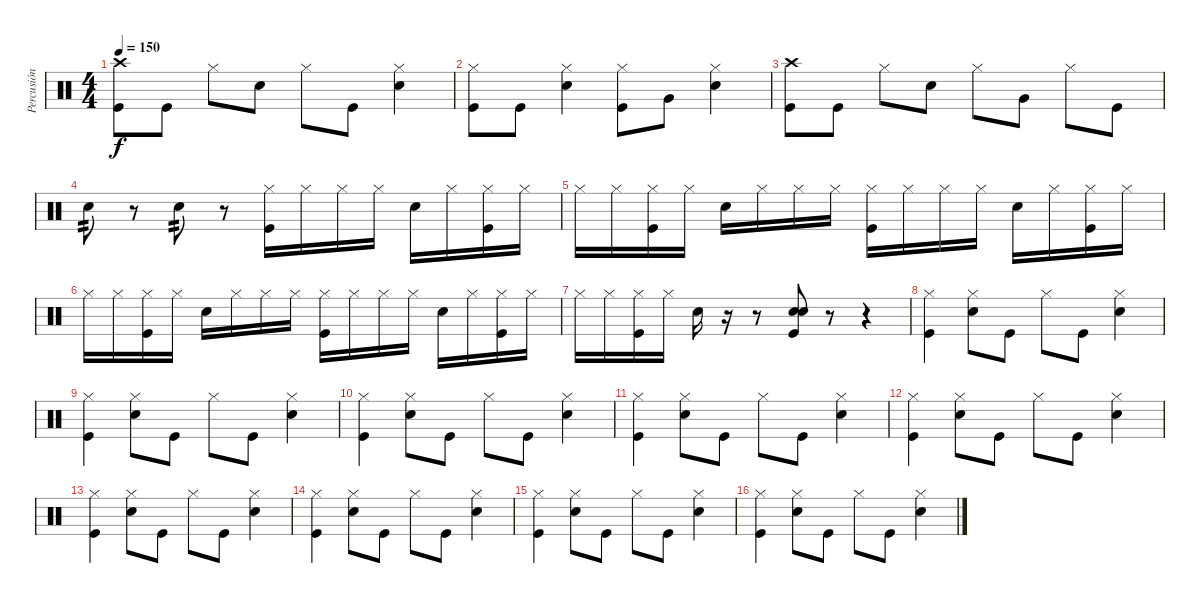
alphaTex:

\track ("Percusión" "Percusión") {instrument percussion}
\staff {score}
\articulation defaults
\ts (4 4)
\tempo 150
\clef neutral
\ks c
("Crash high (hit)" "Kick (hit)").8{dy f} "Kick (hit)".8 "Hi-Hat (closed)".8 "Snare (hit) 2".8 "Hi-Hat (closed)".8 "Kick (hit)".8 ("Hi-Hat (closed)" "Snare (hit) 2").4 |
("Hi-Hat (closed)" "Kick (hit)").8 "Kick (hit)".8 ("Hi-Hat (closed)" "Snare (hit) 2").4 ("Hi-Hat (closed)" "Kick (hit)").8 "Very Low Tom (hit)".8 ("Hi-Hat (closed)" "Snare (hit) 2").4 |
("Crash high (hit)" "Kick (hit)").8 "Kick (hit)".8 "Hi-Hat (closed)".8 "Snare (hit) 2".8 "Hi-Hat (closed)".8 "Very Low Tom (hit)".8 "Hi-Hat (closed)".8 "Kick (hit)".8 |
"Snare (hit) 2".8{tp 2} r.8 "Snare (hit) 2".8{tp 2} r.8 ("Hi-Hat (closed)" "Kick (hit)").16 "Hi-Hat (closed)".16 "Hi-Hat (closed)".16 "Hi-Hat (closed)".16 "Snare (hit) 2".16 "Hi-Hat (closed)".16 ("Hi-Hat (closed)" "Kick (hit)").16 "Hi-Hat (closed)".16 |
"Hi-Hat (closed)".16 "Hi-Hat (closed)".16 ("Hi-Hat (closed)" "Kick (hit)").16 "Hi-Hat (closed)".16 "Snare (hit) 2".16 "Hi-Hat (closed)".16 "Hi-Hat (closed)".16 "Hi-Hat (closed)".16 ("Hi-Hat (closed)" "Kick (hit)").16 "Hi-Hat (closed)".16 "Hi-Hat (closed)".16 "Hi-Hat (closed)".16 "Snare (hit) 2".16 "Hi-Hat (closed)".16 ("Hi-Hat (closed)" "Kick (hit)").16 "Hi-Hat (closed)".16 |
"Hi-Hat (closed)".16 "Hi-Hat (closed)".16 ("Hi-Hat (closed)" "Kick (hit)").16 "Hi-Hat (closed)".16 "Snare (hit) 2".16 "Hi-Hat (closed)".16 "Hi-Hat (closed)".16 "Hi-Hat (closed)".16 ("Hi-Hat (closed)" "Kick (hit)").16 "Hi-Hat (closed)".16 "Hi-Hat (closed)".16 "Hi-Hat (closed)".16 "Snare (hit) 2".16 "Hi-Hat (closed)".16 ("Hi-Hat (closed)" "Kick (hit)").16 "Hi-Hat (closed)".16 |
"Hi-Hat (closed)".16 "Hi-Hat (closed)".16 ("Hi-Hat (closed)" "Kick (hit)").16 "Hi-Hat (closed)".16 "Snare (hit) 2".16 r.16 r.8 ("Snare (hit) 2" "Snare (hit) 2" "Kick (hit)").8 r.8 r.4 |
("Hi-Hat (closed)" "Kick (hit)").4 ("Hi-Hat (closed)" "Snare (hit) 2").8 "Kick (hit)".8 "Hi-Hat (closed)".8 "Kick (hit)".8 ("Hi-Hat (closed)" "Snare (hit) 2").4 |
("Hi-Hat (closed)" "Kick (hit)").4 ("Hi-Hat (closed)" "Snare (hit) 2").8 "Kick (hit)".8 "Hi-Hat (closed)".8 "Kick (hit)".8 ("Hi-Hat (closed)" "Snare (hit) 2").4 |
("Hi-Hat (closed)" "Kick (hit)").4 ("Hi-Hat (closed)" "Snare (hit) 2").8 "Kick (hit)".8 "Hi-Hat (closed)".8 "Kick (hit)".8 ("Hi-Hat (closed)" "Snare (hit) 2").4 |
("Hi-Hat (closed)" "Kick (hit)").4 ("Hi-Hat (closed)" "Snare (hit) 2").8 "Kick (hit)".8 "Hi-Hat (closed)".8 "Kick (hit)".8 ("Hi-Hat (closed)" "Snare (hit) 2").4 |
("Hi-Hat (closed)" "Kick (hit)").4 ("Hi-Hat (closed)" "Snare (hit) 2").8 "Kick (hit)".8 "Hi-Hat (closed)".8 "Kick (hit)".8 ("Hi-Hat (closed)" "Snare (hit) 2").4 |
("Hi-Hat (closed)" "Kick (hit)").4 ("Hi-Hat (closed)" "Snare (hit) 2").8 "Kick (hit)".8 "Hi-Hat (closed)".8 "Kick (hit)".8 ("Hi-Hat (closed)" "Snare (hit) 2").4 |
("Hi-Hat (closed)" "Kick (hit)").4 ("Hi-Hat (closed)" "Snare (hit) 2").8 "Kick (hit)".8 "Hi-Hat (closed)".8 "Kick (hit)".8 ("Hi-Hat (closed)" "Snare (hit) 2").4 |
("Hi-Hat (closed)" "Kick (hit)").4 ("Hi-Hat (closed)" "Snare (hit) 2").8 "Kick (hit)".8 "Hi-Hat (closed)".8 "Kick (hit)".8 ("Hi-Hat (closed)" "Snare (hit) 2").4 |
("Hi-Hat (closed)" "Kick (hit)").4 ("Hi-Hat (closed)" "Snare (hit) 2").8 "Kick (hit)".8 "Hi-Hat (closed)".8 "Kick (hit)".8 ("Hi-Hat (closed)" "Snare (hit) 2").4
